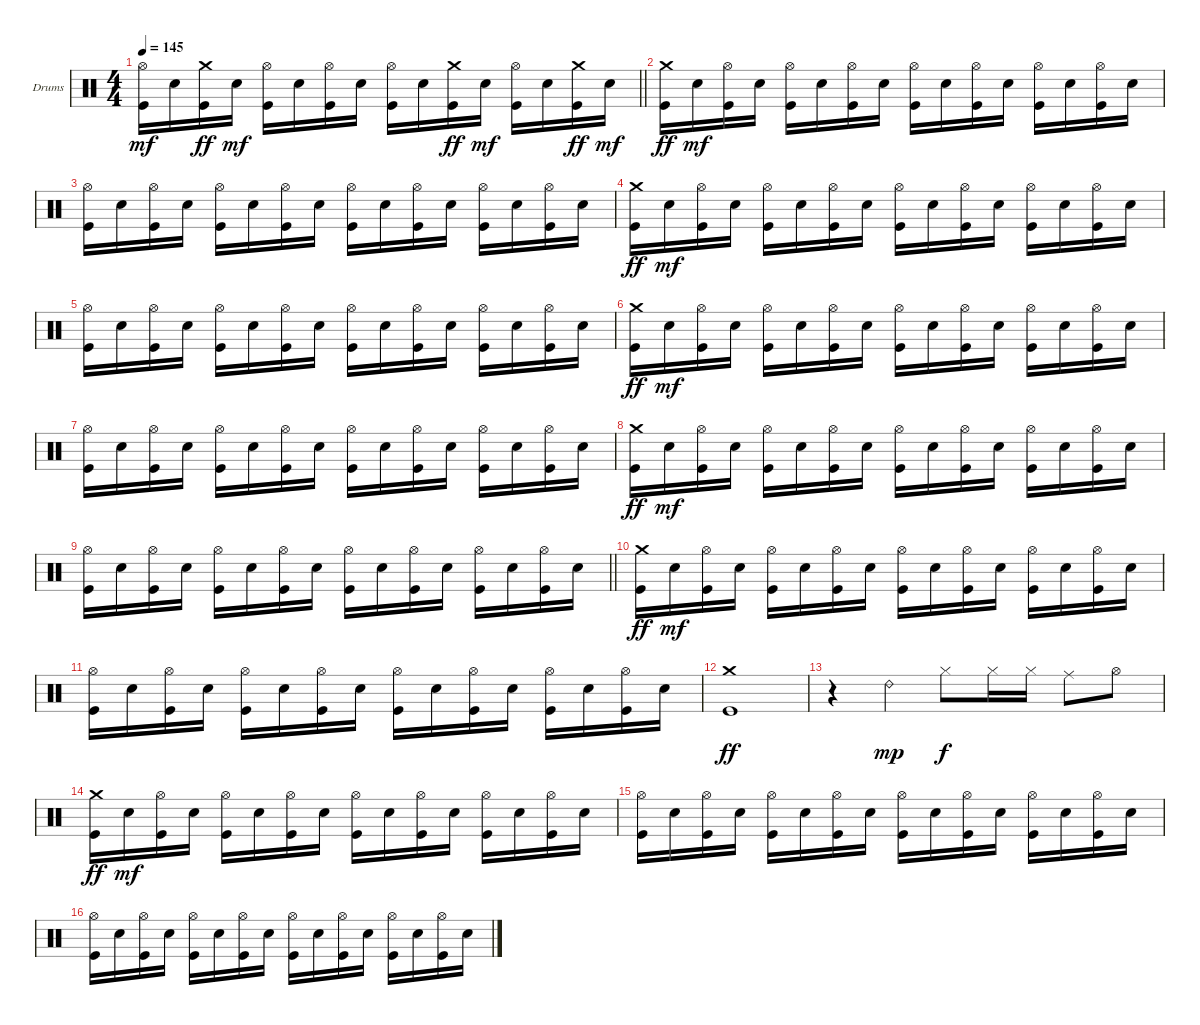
\defaultSystemsLayout 4
\bracketExtendMode groupsimilarinstruments
\firstSystemTrackNameOrientation horizontal
\otherSystemsTrackNameOrientation horizontal
\track ("Drums" "Drums") {instrument percussion}
\staff {score}
\articulation defaults
\ts (4 4)
\tempo 145
\clef neutral
\barLineRight lightlight
\ks c
("Kick (hit)" "Hi-Hat (open)").16{dy mf} "Snare (hit) 2".16 ("Kick (hit)" "Crash medium (hit)").16{dy ff} "Snare (hit) 2".16{dy mf} ("Kick (hit)" "Hi-Hat (open)").16 "Snare (hit) 2".16 ("Kick (hit)" "Hi-Hat (open)").16 "Snare (hit) 2".16 ("Kick (hit)" "Hi-Hat (open)").16 "Snare (hit) 2".16 ("Kick (hit)" "Crash medium (hit)").16{dy ff} "Snare (hit) 2".16{dy mf} ("Kick (hit)" "Hi-Hat (open)").16 "Snare (hit) 2".16 ("Kick (hit)" "Crash medium (hit)").16{dy ff} "Snare (hit) 2".16{dy mf} |
("Kick (hit)" "Crash medium (hit)").16{dy ff} "Snare (hit) 2".16{dy mf} ("Kick (hit)" "Hi-Hat (open)").16 "Snare (hit) 2".16 ("Kick (hit)" "Hi-Hat (open)").16 "Snare (hit) 2".16 ("Kick (hit)" "Hi-Hat (open)").16 "Snare (hit) 2".16 ("Kick (hit)" "Hi-Hat (open)").16 "Snare (hit) 2".16 ("Kick (hit)" "Hi-Hat (open)").16 "Snare (hit) 2".16 ("Kick (hit)" "Hi-Hat (open)").16 "Snare (hit) 2".16 ("Kick (hit)" "Hi-Hat (open)").16 "Snare (hit) 2".16 |
("Kick (hit)" "Hi-Hat (open)").16 "Snare (hit) 2".16 ("Kick (hit)" "Hi-Hat (open)").16 "Snare (hit) 2".16 ("Kick (hit)" "Hi-Hat (open)").16 "Snare (hit) 2".16 ("Kick (hit)" "Hi-Hat (open)").16 "Snare (hit) 2".16 ("Kick (hit)" "Hi-Hat (open)").16 "Snare (hit) 2".16 ("Kick (hit)" "Hi-Hat (open)").16 "Snare (hit) 2".16 ("Kick (hit)" "Hi-Hat (open)").16 "Snare (hit) 2".16 ("Kick (hit)" "Hi-Hat (open)").16 "Snare (hit) 2".16 |
("Kick (hit)" "Crash medium (hit)").16{dy ff} "Snare (hit) 2".16{dy mf} ("Kick (hit)" "Hi-Hat (open)").16 "Snare (hit) 2".16 ("Kick (hit)" "Hi-Hat (open)").16 "Snare (hit) 2".16 ("Kick (hit)" "Hi-Hat (open)").16 "Snare (hit) 2".16 ("Kick (hit)" "Hi-Hat (open)").16 "Snare (hit) 2".16 ("Kick (hit)" "Hi-Hat (open)").16 "Snare (hit) 2".16 ("Kick (hit)" "Hi-Hat (open)").16 "Snare (hit) 2".16 ("Kick (hit)" "Hi-Hat (open)").16 "Snare (hit) 2".16 |
("Kick (hit)" "Hi-Hat (open)").16 "Snare (hit) 2".16 ("Kick (hit)" "Hi-Hat (open)").16 "Snare (hit) 2".16 ("Kick (hit)" "Hi-Hat (open)").16 "Snare (hit) 2".16 ("Kick (hit)" "Hi-Hat (open)").16 "Snare (hit) 2".16 ("Kick (hit)" "Hi-Hat (open)").16 "Snare (hit) 2".16 ("Kick (hit)" "Hi-Hat (open)").16 "Snare (hit) 2".16 ("Kick (hit)" "Hi-Hat (open)").16 "Snare (hit) 2".16 ("Kick (hit)" "Hi-Hat (open)").16 "Snare (hit) 2".16 |
("Kick (hit)" "Crash medium (hit)").16{dy ff} "Snare (hit) 2".16{dy mf} ("Kick (hit)" "Hi-Hat (open)").16 "Snare (hit) 2".16 ("Kick (hit)" "Hi-Hat (open)").16 "Snare (hit) 2".16 ("Kick (hit)" "Hi-Hat (open)").16 "Snare (hit) 2".16 ("Kick (hit)" "Hi-Hat (open)").16 "Snare (hit) 2".16 ("Kick (hit)" "Hi-Hat (open)").16 "Snare (hit) 2".16 ("Kick (hit)" "Hi-Hat (open)").16 "Snare (hit) 2".16 ("Kick (hit)" "Hi-Hat (open)").16 "Snare (hit) 2".16 |
("Kick (hit)" "Hi-Hat (open)").16 "Snare (hit) 2".16 ("Kick (hit)" "Hi-Hat (open)").16 "Snare (hit) 2".16 ("Kick (hit)" "Hi-Hat (open)").16 "Snare (hit) 2".16 ("Kick (hit)" "Hi-Hat (open)").16 "Snare (hit) 2".16 ("Kick (hit)" "Hi-Hat (open)").16 "Snare (hit) 2".16 ("Kick (hit)" "Hi-Hat (open)").16 "Snare (hit) 2".16 ("Kick (hit)" "Hi-Hat (open)").16 "Snare (hit) 2".16 ("Kick (hit)" "Hi-Hat (open)").16 "Snare (hit) 2".16 |
("Kick (hit)" "Crash medium (hit)").16{dy ff} "Snare (hit) 2".16{dy mf} ("Kick (hit)" "Hi-Hat (open)").16 "Snare (hit) 2".16 ("Kick (hit)" "Hi-Hat (open)").16 "Snare (hit) 2".16 ("Kick (hit)" "Hi-Hat (open)").16 "Snare (hit) 2".16 ("Kick (hit)" "Hi-Hat (open)").16 "Snare (hit) 2".16 ("Kick (hit)" "Hi-Hat (open)").16 "Snare (hit) 2".16 ("Kick (hit)" "Hi-Hat (open)").16 "Snare (hit) 2".16 ("Kick (hit)" "Hi-Hat (open)").16 "Snare (hit) 2".16 |
\barLineRight lightlight
("Kick (hit)" "Hi-Hat (open)").16 "Snare (hit) 2".16 ("Kick (hit)" "Hi-Hat (open)").16 "Snare (hit) 2".16 ("Kick (hit)" "Hi-Hat (open)").16 "Snare (hit) 2".16 ("Kick (hit)" "Hi-Hat (open)").16 "Snare (hit) 2".16 ("Kick (hit)" "Hi-Hat (open)").16 "Snare (hit) 2".16 ("Kick (hit)" "Hi-Hat (open)").16 "Snare (hit) 2".16 ("Kick (hit)" "Hi-Hat (open)").16 "Snare (hit) 2".16 ("Kick (hit)" "Hi-Hat (open)").16 "Snare (hit) 2".16 |
("Kick (hit)" "Crash medium (hit)").16{dy ff} "Snare (hit) 2".16{dy mf} ("Kick (hit)" "Hi-Hat (open)").16 "Snare (hit) 2".16 ("Kick (hit)" "Hi-Hat (open)").16 "Snare (hit) 2".16 ("Kick (hit)" "Hi-Hat (open)").16 "Snare (hit) 2".16 ("Kick (hit)" "Hi-Hat (open)").16 "Snare (hit) 2".16 ("Kick (hit)" "Hi-Hat (open)").16 "Snare (hit) 2".16 ("Kick (hit)" "Hi-Hat (open)").16 "Snare (hit) 2".16 ("Kick (hit)" "Hi-Hat (open)").16 "Snare (hit) 2".16 |
("Kick (hit)" "Hi-Hat (open)").16 "Snare (hit) 2".16 ("Kick (hit)" "Hi-Hat (open)").16 "Snare (hit) 2".16 ("Kick (hit)" "Hi-Hat (open)").16 "Snare (hit) 2".16 ("Kick (hit)" "Hi-Hat (open)").16 "Snare (hit) 2".16 ("Kick (hit)" "Hi-Hat (open)").16 "Snare (hit) 2".16 ("Kick (hit)" "Hi-Hat (open)").16 "Snare (hit) 2".16 ("Kick (hit)" "Hi-Hat (open)").16 "Snare (hit) 2".16 ("Kick (hit)" "Hi-Hat (open)").16 "Snare (hit) 2".16 |
("Kick (hit)" "Crash medium (hit)").1{dy ff} |
r.4 "Ride (bell) 2".4{dy mp} "Hi-Hat (closed)".8{dy f} "Hi-Hat (closed)".16 "Hi-Hat (closed)".16 "Ride (middle)".8 "Hi-Hat (open)".8 |
("Kick (hit)" "Crash medium (hit)").16{dy ff} "Snare (hit) 2".16{dy mf} ("Kick (hit)" "Hi-Hat (open)").16 "Snare (hit) 2".16 ("Kick (hit)" "Hi-Hat (open)").16 "Snare (hit) 2".16 ("Kick (hit)" "Hi-Hat (open)").16 "Snare (hit) 2".16 ("Kick (hit)" "Hi-Hat (open)").16 "Snare (hit) 2".16 ("Kick (hit)" "Hi-Hat (open)").16 "Snare (hit) 2".16 ("Kick (hit)" "Hi-Hat (open)").16 "Snare (hit) 2".16 ("Kick (hit)" "Hi-Hat (open)").16 "Snare (hit) 2".16 |
("Kick (hit)" "Hi-Hat (open)").16 "Snare (hit) 2".16 ("Kick (hit)" "Hi-Hat (open)").16 "Snare (hit) 2".16 ("Kick (hit)" "Hi-Hat (open)").16 "Snare (hit) 2".16 ("Kick (hit)" "Hi-Hat (open)").16 "Snare (hit) 2".16 ("Kick (hit)" "Hi-Hat (open)").16 "Snare (hit) 2".16 ("Kick (hit)" "Hi-Hat (open)").16 "Snare (hit) 2".16 ("Kick (hit)" "Hi-Hat (open)").16 "Snare (hit) 2".16 ("Kick (hit)" "Hi-Hat (open)").16 "Snare (hit) 2".16 |
("Kick (hit)" "Hi-Hat (open)").16 "Snare (hit) 2".16 ("Kick (hit)" "Hi-Hat (open)").16 "Snare (hit) 2".16 ("Kick (hit)" "Hi-Hat (open)").16 "Snare (hit) 2".16 ("Kick (hit)" "Hi-Hat (open)").16 "Snare (hit) 2".16 ("Kick (hit)" "Hi-Hat (open)").16 "Snare (hit) 2".16 ("Kick (hit)" "Hi-Hat (open)").16 "Snare (hit) 2".16 ("Kick (hit)" "Hi-Hat (open)").16 "Snare (hit) 2".16 ("Kick (hit)" "Hi-Hat (open)").16 "Snare (hit) 2".16
